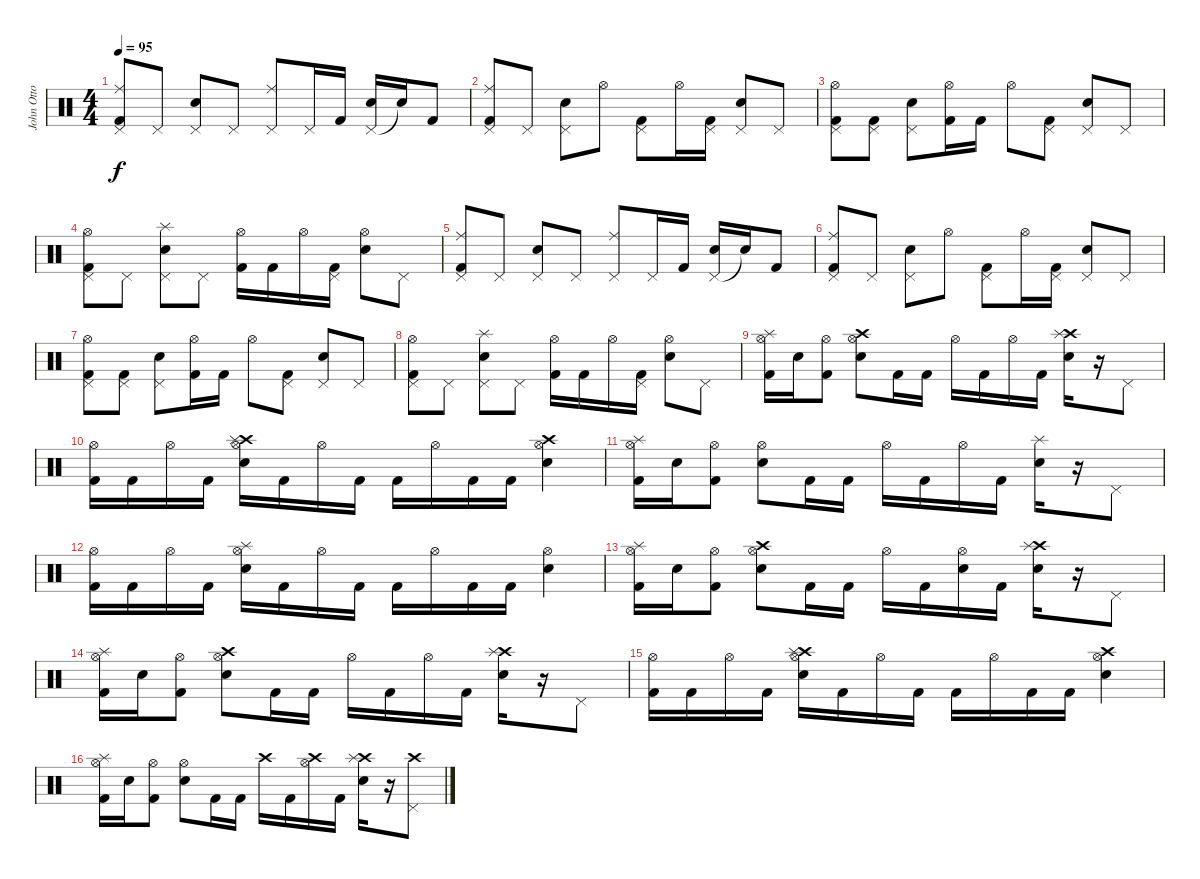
\track ("John Otto (Drums)" "John Otto ") {instrument percussion}
\staff {score}
\articulation defaults
\ts (4 4)
\tempo 95
\clef neutral
\ks c
("Ride (middle)" "Pedal Hi-Hat (hit)" "Kick (hit) 2").8{dy f} "Pedal Hi-Hat (hit)".8 ("Pedal Hi-Hat (hit)" "Electric Snare (hit)").8 "Pedal Hi-Hat (hit)".8 ("Pedal Hi-Hat (hit)" "Ride (middle)").8 "Pedal Hi-Hat (hit)".16 "Kick (hit) 2".16 ("Pedal Hi-Hat (hit)" "Electric Snare (hit)").16 "Snare (hit)"{t}.16 "Kick (hit) 2".8 |
("Ride (middle)" "Pedal Hi-Hat (hit)" "Kick (hit) 2").8 "Pedal Hi-Hat (hit)".8 ("Pedal Hi-Hat (hit)" "Electric Snare (hit)").8 "Hi-Hat (open)".8 ("Pedal Hi-Hat (hit)" "Kick (hit) 2").8 "Hi-Hat (open)".16 ("Pedal Hi-Hat (hit)" "Kick (hit) 2").16 ("Pedal Hi-Hat (hit)" "Electric Snare (hit)").8 "Pedal Hi-Hat (hit)".8 |
("Hi-Hat (open)" "Pedal Hi-Hat (hit)" "Kick (hit) 2").8 ("Pedal Hi-Hat (hit)" "Kick (hit) 2").8 ("Pedal Hi-Hat (hit)" "Electric Snare (hit)").8 ("Hi-Hat (open)" "Kick (hit) 2").16 "Kick (hit) 2".16 "Hi-Hat (open)".8 ("Pedal Hi-Hat (hit)" "Kick (hit) 2").8 ("Pedal Hi-Hat (hit)" "Electric Snare (hit)").8 "Pedal Hi-Hat (hit)".8 |
("Hi-Hat (open)" "Pedal Hi-Hat (hit)" "Kick (hit) 2").8 "Pedal Hi-Hat (hit)".8 ("Splash (hit)" "Pedal Hi-Hat (hit)" "Electric Snare (hit)").8 "Pedal Hi-Hat (hit)".8 ("Hi-Hat (open)" "Kick (hit) 2").16 "Kick (hit) 2".16 "Hi-Hat (open)".16 ("Pedal Hi-Hat (hit)" "Kick (hit) 2").16 ("Hi-Hat (open)" "Electric Snare (hit)").8 "Pedal Hi-Hat (hit)".8 |
("Ride (middle)" "Pedal Hi-Hat (hit)" "Kick (hit) 2").8 "Pedal Hi-Hat (hit)".8 ("Pedal Hi-Hat (hit)" "Electric Snare (hit)").8 "Pedal Hi-Hat (hit)".8 ("Pedal Hi-Hat (hit)" "Ride (middle)").8 "Pedal Hi-Hat (hit)".16 "Kick (hit) 2".16 ("Pedal Hi-Hat (hit)" "Electric Snare (hit)").16 "Snare (hit)"{t}.16 "Kick (hit) 2".8 |
("Ride (middle)" "Pedal Hi-Hat (hit)" "Kick (hit) 2").8 "Pedal Hi-Hat (hit)".8 ("Pedal Hi-Hat (hit)" "Electric Snare (hit)").8 "Hi-Hat (open)".8 ("Pedal Hi-Hat (hit)" "Kick (hit) 2").8 "Hi-Hat (open)".16 ("Pedal Hi-Hat (hit)" "Kick (hit) 2").16 ("Pedal Hi-Hat (hit)" "Electric Snare (hit)").8 "Pedal Hi-Hat (hit)".8 |
("Hi-Hat (open)" "Pedal Hi-Hat (hit)" "Kick (hit) 2").8 ("Pedal Hi-Hat (hit)" "Kick (hit) 2").8 ("Pedal Hi-Hat (hit)" "Electric Snare (hit)").8 ("Hi-Hat (open)" "Kick (hit) 2").16 "Kick (hit) 2".16 "Hi-Hat (open)".8 ("Pedal Hi-Hat (hit)" "Kick (hit) 2").8 ("Pedal Hi-Hat (hit)" "Electric Snare (hit)").8 "Pedal Hi-Hat (hit)".8 |
("Hi-Hat (open)" "Pedal Hi-Hat (hit)" "Kick (hit) 2").8 "Pedal Hi-Hat (hit)".8 ("Splash (hit)" "Pedal Hi-Hat (hit)" "Electric Snare (hit)").8 "Pedal Hi-Hat (hit)".8 ("Hi-Hat (open)" "Kick (hit) 2").16 "Kick (hit) 2".16 "Hi-Hat (open)".16 ("Pedal Hi-Hat (hit)" "Kick (hit) 2").16 ("Hi-Hat (open)" "Electric Snare (hit)").8 "Pedal Hi-Hat (hit)".8 |
("Splash (hit)" "Hi-Hat (open)" "Kick (hit) 2").16 "Electric Snare (hit)".16 ("Hi-Hat (open)" "Kick (hit) 2").8 ("Crash high (hit)" "Hi-Hat (open)" "Electric Snare (hit)").8 "Kick (hit) 2".16 "Kick (hit) 2".16 "Hi-Hat (open)".16 "Kick (hit) 2".16 "Hi-Hat (open)".16 "Kick (hit) 2".16 ("Crash high (hit)" "Splash (hit)" "Electric Snare (hit)").16 r.16 "Pedal Hi-Hat (hit)".8 |
("Hi-Hat (open)" "Kick (hit) 2").16 "Kick (hit) 2".16 "Hi-Hat (open)".16 "Kick (hit) 2".16 ("Crash high (hit)" "Splash (hit)" "Hi-Hat (open)" "Electric Snare (hit)").16 "Kick (hit) 2".16 "Hi-Hat (open)".16 "Kick (hit) 2".16 "Kick (hit) 2".16 "Hi-Hat (open)".16 "Kick (hit) 2".16 "Kick (hit) 2".16 ("Crash high (hit)" "Hi-Hat (open)" "Electric Snare (hit)").4 |
("Splash (hit)" "Hi-Hat (open)" "Kick (hit) 2").16 "Electric Snare (hit)".16 ("Hi-Hat (open)" "Kick (hit) 2").8 ("Hi-Hat (open)" "Electric Snare (hit)").8 "Kick (hit) 2".16 "Kick (hit) 2".16 "Hi-Hat (open)".16 "Kick (hit) 2".16 "Hi-Hat (open)".16 "Kick (hit) 2".16 ("Splash (hit)" "Electric Snare (hit)").16 r.16 "Pedal Hi-Hat (hit)".8 |
("Hi-Hat (open)" "Kick (hit) 2").16 "Kick (hit) 2".16 "Hi-Hat (open)".16 "Kick (hit) 2".16 ("Splash (hit)" "Hi-Hat (open)" "Electric Snare (hit)").16 "Kick (hit) 2".16 "Hi-Hat (open)".16 "Kick (hit) 2".16 "Kick (hit) 2".16 "Hi-Hat (open)".16 "Kick (hit) 2".16 "Kick (hit) 2".16 ("Hi-Hat (open)" "Electric Snare (hit)").4 |
("Splash (hit)" "Hi-Hat (open)" "Kick (hit) 2").16 "Electric Snare (hit)".16 ("Hi-Hat (open)" "Kick (hit) 2").8 ("Crash high (hit)" "Hi-Hat (open)" "Electric Snare (hit)").8 "Kick (hit) 2".16 "Kick (hit) 2".16 "Hi-Hat (open)".16 "Kick (hit) 2".16 ("Hi-Hat (open)" "Electric Snare (hit)").16 "Kick (hit) 2".16 ("Crash high (hit)" "Splash (hit)" "Electric Snare (hit)").16 r.16 "Pedal Hi-Hat (hit)".8 |
("Splash (hit)" "Hi-Hat (open)" "Kick (hit) 2").16 "Electric Snare (hit)".16 ("Hi-Hat (open)" "Kick (hit) 2").8 ("Crash high (hit)" "Hi-Hat (open)" "Electric Snare (hit)").8 "Kick (hit) 2".16 "Kick (hit) 2".16 "Hi-Hat (open)".16 "Kick (hit) 2".16 "Hi-Hat (open)".16 "Kick (hit) 2".16 ("Crash high (hit)" "Splash (hit)" "Electric Snare (hit)").16 r.16 "Pedal Hi-Hat (hit)".8 |
("Hi-Hat (open)" "Kick (hit) 2").16 "Kick (hit) 2".16 "Hi-Hat (open)".16 "Kick (hit) 2".16 ("Crash high (hit)" "Splash (hit)" "Hi-Hat (open)" "Electric Snare (hit)").16 "Kick (hit) 2".16 "Hi-Hat (open)".16 "Kick (hit) 2".16 "Kick (hit) 2".16 "Hi-Hat (open)".16 "Kick (hit) 2".16 "Kick (hit) 2".16 ("Crash high (hit)" "Hi-Hat (open)" "Electric Snare (hit)").4 |
("Splash (hit)" "Hi-Hat (open)" "Kick (hit) 2").16 "Electric Snare (hit)".16 ("Hi-Hat (open)" "Kick (hit) 2").8 ("Hi-Hat (open)" "Electric Snare (hit)").8 "Kick (hit) 2".16 "Kick (hit) 2".16 "Crash high (hit)".16 "Kick (hit) 2".16 ("Crash high (hit)" "Hi-Hat (open)").16 "Kick (hit) 2".16 ("Crash high (hit)" "Splash (hit)" "Electric Snare (hit)").16 r.16 ("Crash high (hit)" "Pedal Hi-Hat (hit)").8
